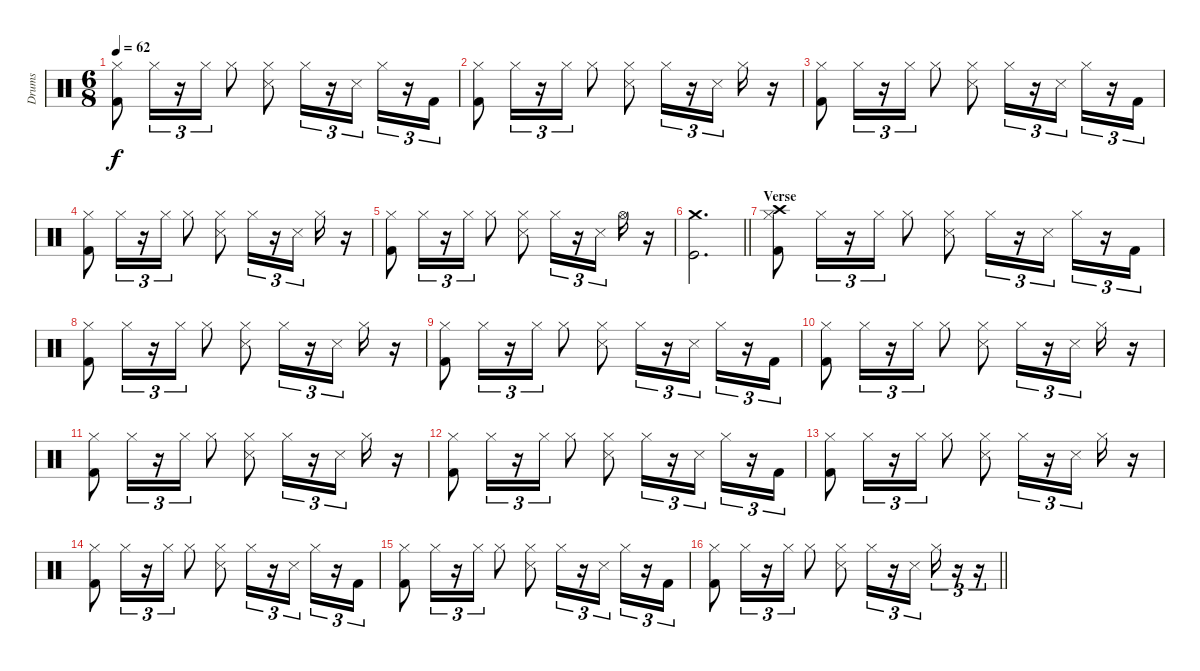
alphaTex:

\track ("Drums" "Drums") {instrument percussion}
\staff {score}
\articulation defaults
\ts (6 8)
\tempo 62
\clef neutral
\ks c
("Hi-Hat (closed)" "Kick (hit) 2").8{dy f} "Hi-Hat (closed)".16{tu (3 2)} r.16{tu (3 2)} "Hi-Hat (closed)".16{tu (3 2)} "Hi-Hat (closed)".8 ("Hi-Hat (closed)" "Snare (side stick) 3").8 "Hi-Hat (closed)".16{tu (3 2)} r.16{tu (3 2)} "Snare (side stick) 3".16{tu (3 2)} "Hi-Hat (closed)".16{tu (3 2)} r.16{tu (3 2)} "Kick (hit) 2".16{tu (3 2)} |
("Hi-Hat (closed)" "Kick (hit) 2").8 "Hi-Hat (closed)".16{tu (3 2)} r.16{tu (3 2)} "Hi-Hat (closed)".16{tu (3 2)} "Hi-Hat (closed)".8 ("Hi-Hat (closed)" "Snare (side stick) 3").8 "Hi-Hat (closed)".16{tu (3 2)} r.16{tu (3 2)} "Snare (side stick) 3".16{tu (3 2)} "Hi-Hat (closed)".16 r.16 |
("Hi-Hat (closed)" "Kick (hit) 2").8 "Hi-Hat (closed)".16{tu (3 2)} r.16{tu (3 2)} "Hi-Hat (closed)".16{tu (3 2)} "Hi-Hat (closed)".8 ("Hi-Hat (closed)" "Snare (side stick) 3").8 "Hi-Hat (closed)".16{tu (3 2)} r.16{tu (3 2)} "Snare (side stick) 3".16{tu (3 2)} "Hi-Hat (closed)".16{tu (3 2)} r.16{tu (3 2)} "Kick (hit) 2".16{tu (3 2)} |
("Hi-Hat (closed)" "Kick (hit) 2").8 "Hi-Hat (closed)".16{tu (3 2)} r.16{tu (3 2)} "Hi-Hat (closed)".16{tu (3 2)} "Hi-Hat (closed)".8 ("Hi-Hat (closed)" "Snare (side stick) 3").8 "Hi-Hat (closed)".16{tu (3 2)} r.16{tu (3 2)} "Snare (side stick) 3".16{tu (3 2)} "Hi-Hat (closed)".16 r.16 |
("Hi-Hat (closed)" "Kick (hit) 2").8 "Hi-Hat (closed)".16{tu (3 2)} r.16{tu (3 2)} "Hi-Hat (closed)".16{tu (3 2)} "Hi-Hat (closed)".8 ("Hi-Hat (closed)" "Snare (side stick) 3").8 "Hi-Hat (closed)".16{tu (3 2)} r.16{tu (3 2)} "Snare (side stick) 3".16{tu (3 2)} "Hi-Hat (open)".16 r.16 |
\barLineRight lightlight
("Crash medium (hit)" "Kick (hit)").2{d} |
\section ("" "Verse")
("Hi-Hat (closed)" "Crash high (hit)" "Kick (hit) 2").8 "Hi-Hat (closed)".16{tu (3 2)} r.16{tu (3 2)} "Hi-Hat (closed)".16{tu (3 2)} "Hi-Hat (closed)".8 ("Hi-Hat (closed)" "Snare (side stick) 3").8 "Hi-Hat (closed)".16{tu (3 2)} r.16{tu (3 2)} "Snare (side stick) 3".16{tu (3 2)} "Hi-Hat (closed)".16{tu (3 2)} r.16{tu (3 2)} "Kick (hit) 2".16{tu (3 2)} |
("Hi-Hat (closed)" "Kick (hit) 2").8 "Hi-Hat (closed)".16{tu (3 2)} r.16{tu (3 2)} "Hi-Hat (closed)".16{tu (3 2)} "Hi-Hat (closed)".8 ("Hi-Hat (closed)" "Snare (side stick) 3").8 "Hi-Hat (closed)".16{tu (3 2)} r.16{tu (3 2)} "Snare (side stick) 3".16{tu (3 2)} "Hi-Hat (closed)".16 r.16 |
("Hi-Hat (closed)" "Kick (hit) 2").8 "Hi-Hat (closed)".16{tu (3 2)} r.16{tu (3 2)} "Hi-Hat (closed)".16{tu (3 2)} "Hi-Hat (closed)".8 ("Hi-Hat (closed)" "Snare (side stick) 3").8 "Hi-Hat (closed)".16{tu (3 2)} r.16{tu (3 2)} "Snare (side stick) 3".16{tu (3 2)} "Hi-Hat (closed)".16{tu (3 2)} r.16{tu (3 2)} "Kick (hit) 2".16{tu (3 2)} |
("Hi-Hat (closed)" "Kick (hit) 2").8 "Hi-Hat (closed)".16{tu (3 2)} r.16{tu (3 2)} "Hi-Hat (closed)".16{tu (3 2)} "Hi-Hat (closed)".8 ("Hi-Hat (closed)" "Snare (side stick) 3").8 "Hi-Hat (closed)".16{tu (3 2)} r.16{tu (3 2)} "Snare (side stick) 3".16{tu (3 2)} "Hi-Hat (closed)".16 r.16 |
("Hi-Hat (closed)" "Kick (hit) 2").8 "Hi-Hat (closed)".16{tu (3 2)} r.16{tu (3 2)} "Hi-Hat (closed)".16{tu (3 2)} "Hi-Hat (closed)".8 ("Hi-Hat (closed)" "Snare (side stick) 3").8 "Hi-Hat (closed)".16{tu (3 2)} r.16{tu (3 2)} "Snare (side stick) 3".16{tu (3 2)} "Hi-Hat (closed)".16 r.16 |
("Hi-Hat (closed)" "Kick (hit) 2").8 "Hi-Hat (closed)".16{tu (3 2)} r.16{tu (3 2)} "Hi-Hat (closed)".16{tu (3 2)} "Hi-Hat (closed)".8 ("Hi-Hat (closed)" "Snare (side stick) 3").8 "Hi-Hat (closed)".16{tu (3 2)} r.16{tu (3 2)} "Snare (side stick) 3".16{tu (3 2)} "Hi-Hat (closed)".16{tu (3 2)} r.16{tu (3 2)} "Kick (hit) 2".16{tu (3 2)} |
("Hi-Hat (closed)" "Kick (hit) 2").8 "Hi-Hat (closed)".16{tu (3 2)} r.16{tu (3 2)} "Hi-Hat (closed)".16{tu (3 2)} "Hi-Hat (closed)".8 ("Hi-Hat (closed)" "Snare (side stick) 3").8 "Hi-Hat (closed)".16{tu (3 2)} r.16{tu (3 2)} "Snare (side stick) 3".16{tu (3 2)} "Hi-Hat (closed)".16 r.16 |
("Hi-Hat (closed)" "Kick (hit) 2").8 "Hi-Hat (closed)".16{tu (3 2)} r.16{tu (3 2)} "Hi-Hat (closed)".16{tu (3 2)} "Hi-Hat (closed)".8 ("Hi-Hat (closed)" "Snare (side stick) 3").8 "Hi-Hat (closed)".16{tu (3 2)} r.16{tu (3 2)} "Snare (side stick) 3".16{tu (3 2)} "Hi-Hat (closed)".16{tu (3 2)} r.16{tu (3 2)} "Kick (hit) 2".16{tu (3 2)} |
("Hi-Hat (closed)" "Kick (hit) 2").8 "Hi-Hat (closed)".16{tu (3 2)} r.16{tu (3 2)} "Hi-Hat (closed)".16{tu (3 2)} "Hi-Hat (closed)".8 ("Hi-Hat (closed)" "Snare (side stick) 3").8 "Hi-Hat (closed)".16{tu (3 2)} r.16{tu (3 2)} "Snare (side stick) 3".16{tu (3 2)} "Hi-Hat (closed)".16{tu (3 2)} r.16{tu (3 2)} "Kick (hit) 2".16{tu (3 2)} |
\barLineRight lightlight
("Hi-Hat (closed)" "Kick (hit) 2").8 "Hi-Hat (closed)".16{tu (3 2)} r.16{tu (3 2)} "Hi-Hat (closed)".16{tu (3 2)} "Hi-Hat (closed)".8 ("Hi-Hat (closed)" "Snare (side stick) 3").8 "Hi-Hat (closed)".16{tu (3 2)} r.16{tu (3 2)} "Snare (side stick) 3".16{tu (3 2)} "Hi-Hat (closed)".16{tu (3 2)} r.16{tu (3 2)} r.16{tu (3 2)}
